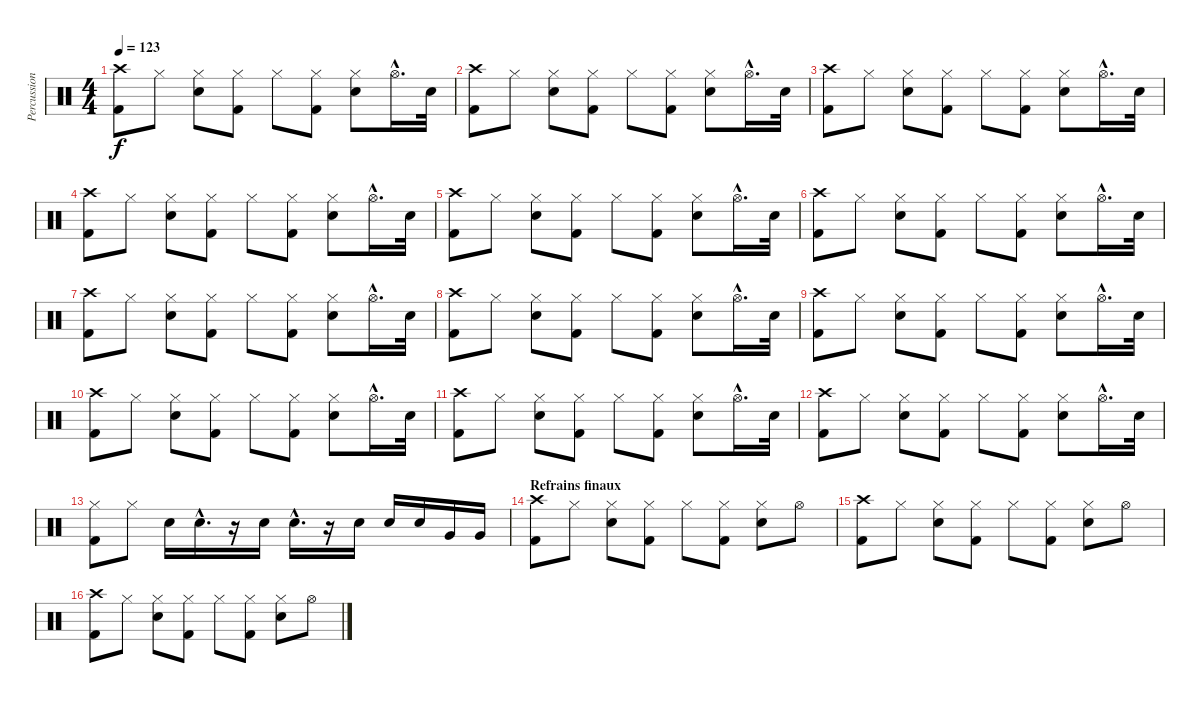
\track ("Percussions" "Percussion") {instrument percussion}
\staff {score}
\articulation defaults
\ts (4 4)
\tempo 123
\clef neutral
\ks c
("Crash high (hit)" "Kick (hit) 2").8{dy f} "Hi-Hat (closed)".8 ("Hi-Hat (closed)" "Snare (hit) 2").8 ("Hi-Hat (closed)" "Kick (hit) 2").8 "Hi-Hat (closed)".8 ("Hi-Hat (closed)" "Kick (hit) 2").8 ("Hi-Hat (closed)" "Snare (hit) 2").8 "Hi-Hat (open)"{hac}.16{d} "Snare (hit) 2".32 |
("Crash high (hit)" "Kick (hit) 2").8 "Hi-Hat (closed)".8 ("Hi-Hat (closed)" "Snare (hit) 2").8 ("Hi-Hat (closed)" "Kick (hit) 2").8 "Hi-Hat (closed)".8 ("Hi-Hat (closed)" "Kick (hit) 2").8 ("Hi-Hat (closed)" "Snare (hit) 2").8 "Hi-Hat (open)"{hac}.16{d} "Snare (hit) 2".32 |
("Crash high (hit)" "Kick (hit) 2").8 "Hi-Hat (closed)".8 ("Hi-Hat (closed)" "Snare (hit) 2").8 ("Hi-Hat (closed)" "Kick (hit) 2").8 "Hi-Hat (closed)".8 ("Hi-Hat (closed)" "Kick (hit) 2").8 ("Hi-Hat (closed)" "Snare (hit) 2").8 "Hi-Hat (open)"{hac}.16{d} "Snare (hit) 2".32 |
("Crash high (hit)" "Kick (hit) 2").8 "Hi-Hat (closed)".8 ("Hi-Hat (closed)" "Snare (hit) 2").8 ("Hi-Hat (closed)" "Kick (hit) 2").8 "Hi-Hat (closed)".8 ("Hi-Hat (closed)" "Kick (hit) 2").8 ("Hi-Hat (closed)" "Snare (hit) 2").8 "Hi-Hat (open)"{hac}.16{d} "Snare (hit) 2".32 |
("Crash high (hit)" "Kick (hit) 2").8 "Hi-Hat (closed)".8 ("Hi-Hat (closed)" "Snare (hit) 2").8 ("Hi-Hat (closed)" "Kick (hit) 2").8 "Hi-Hat (closed)".8 ("Hi-Hat (closed)" "Kick (hit) 2").8 ("Hi-Hat (closed)" "Snare (hit) 2").8 "Hi-Hat (open)"{hac}.16{d} "Snare (hit) 2".32 |
("Crash high (hit)" "Kick (hit) 2").8 "Hi-Hat (closed)".8 ("Hi-Hat (closed)" "Snare (hit) 2").8 ("Hi-Hat (closed)" "Kick (hit) 2").8 "Hi-Hat (closed)".8 ("Hi-Hat (closed)" "Kick (hit) 2").8 ("Hi-Hat (closed)" "Snare (hit) 2").8 "Hi-Hat (open)"{hac}.16{d} "Snare (hit) 2".32 |
("Crash high (hit)" "Kick (hit) 2").8 "Hi-Hat (closed)".8 ("Hi-Hat (closed)" "Snare (hit) 2").8 ("Hi-Hat (closed)" "Kick (hit) 2").8 "Hi-Hat (closed)".8 ("Hi-Hat (closed)" "Kick (hit) 2").8 ("Hi-Hat (closed)" "Snare (hit) 2").8 "Hi-Hat (open)"{hac}.16{d} "Snare (hit) 2".32 |
("Crash high (hit)" "Kick (hit) 2").8 "Hi-Hat (closed)".8 ("Hi-Hat (closed)" "Snare (hit) 2").8 ("Hi-Hat (closed)" "Kick (hit) 2").8 "Hi-Hat (closed)".8 ("Hi-Hat (closed)" "Kick (hit) 2").8 ("Hi-Hat (closed)" "Snare (hit) 2").8 "Hi-Hat (open)"{hac}.16{d} "Snare (hit) 2".32 |
("Crash high (hit)" "Kick (hit) 2").8 "Hi-Hat (closed)".8 ("Hi-Hat (closed)" "Snare (hit) 2").8 ("Hi-Hat (closed)" "Kick (hit) 2").8 "Hi-Hat (closed)".8 ("Hi-Hat (closed)" "Kick (hit) 2").8 ("Hi-Hat (closed)" "Snare (hit) 2").8 "Hi-Hat (open)"{hac}.16{d} "Snare (hit) 2".32 |
("Crash high (hit)" "Kick (hit) 2").8 "Hi-Hat (closed)".8 ("Hi-Hat (closed)" "Snare (hit) 2").8 ("Hi-Hat (closed)" "Kick (hit) 2").8 "Hi-Hat (closed)".8 ("Hi-Hat (closed)" "Kick (hit) 2").8 ("Hi-Hat (closed)" "Snare (hit) 2").8 "Hi-Hat (open)"{hac}.16{d} "Snare (hit) 2".32 |
("Crash high (hit)" "Kick (hit) 2").8 "Hi-Hat (closed)".8 ("Hi-Hat (closed)" "Snare (hit) 2").8 ("Hi-Hat (closed)" "Kick (hit) 2").8 "Hi-Hat (closed)".8 ("Hi-Hat (closed)" "Kick (hit) 2").8 ("Hi-Hat (closed)" "Snare (hit) 2").8 "Hi-Hat (open)"{hac}.16{d} "Snare (hit) 2".32 |
("Crash high (hit)" "Kick (hit) 2").8 "Hi-Hat (closed)".8 ("Hi-Hat (closed)" "Snare (hit) 2").8 ("Hi-Hat (closed)" "Kick (hit) 2").8 "Hi-Hat (closed)".8 ("Hi-Hat (closed)" "Kick (hit) 2").8 ("Hi-Hat (closed)" "Snare (hit) 2").8 "Hi-Hat (open)"{hac}.16{d} "Snare (hit) 2".32 |
("Hi-Hat (closed)" "Kick (hit) 2").8 "Hi-Hat (closed)".8 "Snare (hit) 2".16 "Snare (hit) 2"{hac}.16{d} r.16 "Snare (hit) 2".16 "Snare (hit) 2"{hac}.16{d} r.16 "Snare (hit) 2".16 "Snare (hit) 2".16 "Snare (hit) 2".16 "Very Low Tom (hit)".16 "Very Low Tom (hit)".16 |
\section ("" "Refrains finaux")
("Crash high (hit)" "Kick (hit) 2").8 "Hi-Hat (closed)".8 ("Hi-Hat (closed)" "Snare (hit) 2").8 ("Hi-Hat (closed)" "Kick (hit) 2").8 "Hi-Hat (closed)".8 ("Hi-Hat (closed)" "Kick (hit) 2").8 ("Hi-Hat (closed)" "Snare (hit) 2").8 "Hi-Hat (open)".8 |
("Crash high (hit)" "Kick (hit) 2").8 "Hi-Hat (closed)".8 ("Hi-Hat (closed)" "Snare (hit) 2").8 ("Hi-Hat (closed)" "Kick (hit) 2").8 "Hi-Hat (closed)".8 ("Hi-Hat (closed)" "Kick (hit) 2").8 ("Hi-Hat (closed)" "Snare (hit) 2").8 "Hi-Hat (open)".8 |
("Crash high (hit)" "Kick (hit) 2").8 "Hi-Hat (closed)".8 ("Hi-Hat (closed)" "Snare (hit) 2").8 ("Hi-Hat (closed)" "Kick (hit) 2").8 "Hi-Hat (closed)".8 ("Hi-Hat (closed)" "Kick (hit) 2").8 ("Hi-Hat (closed)" "Snare (hit) 2").8 "Hi-Hat (open)".8
